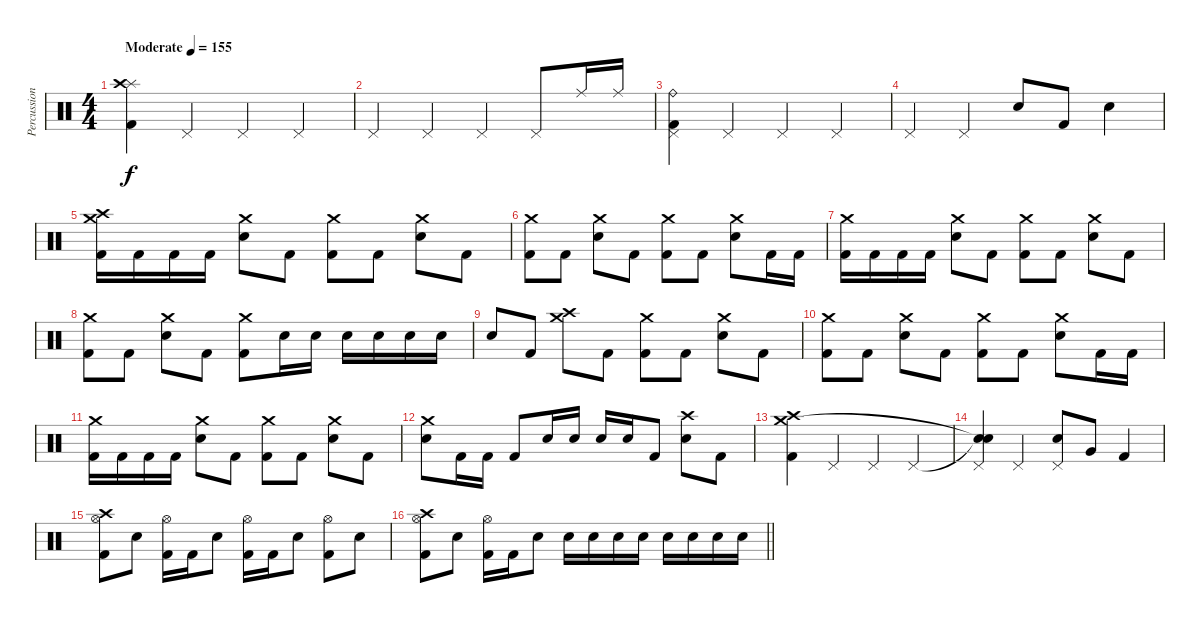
\track ("Percussion" "Percussion") {instrument percussion}
\staff {score}
\articulation defaults
\ts (4 4)
\tempo (155 "Moderate")
\clef neutral
\ks c
("Splash (hit)" "Crash high (hit)" "Kick (hit) 2").4{dy f} "Pedal Hi-Hat (hit)".4 "Pedal Hi-Hat (hit)".4 "Pedal Hi-Hat (hit)".4 |
"Pedal Hi-Hat (hit)".4 "Pedal Hi-Hat (hit)".4 "Pedal Hi-Hat (hit)".4 "Pedal Hi-Hat (hit)".8 "Ride (middle)".16 "Ride (middle)".16 |
("Ride (bell)" "Kick (hit) 2" "Pedal Hi-Hat (hit)").4 "Pedal Hi-Hat (hit)".4 "Pedal Hi-Hat (hit)".4 "Pedal Hi-Hat (hit)".4 |
"Pedal Hi-Hat (hit)".4 "Pedal Hi-Hat (hit)".4 "Electric Snare (hit)".8 "Kick (hit) 2".8 "Electric Snare (hit)".4 |
("Crash medium (hit)" "Crash high (hit)" "Kick (hit) 2").16 "Kick (hit) 2".16 "Kick (hit) 2".16 "Kick (hit) 2".16 ("Crash medium (hit)" "Electric Snare (hit)").8 "Kick (hit) 2".8 ("Crash medium (hit)" "Kick (hit) 2").8 "Kick (hit) 2".8 ("Crash medium (hit)" "Electric Snare (hit)").8 "Kick (hit) 2".8 |
("Crash medium (hit)" "Kick (hit) 2").8 "Kick (hit) 2".8 ("Crash medium (hit)" "Electric Snare (hit)").8 "Kick (hit) 2".8 ("Crash medium (hit)" "Kick (hit) 2").8 "Kick (hit) 2".8 ("Crash medium (hit)" "Electric Snare (hit)").8 "Kick (hit) 2".16 "Kick (hit) 2".16 |
("Crash medium (hit)" "Kick (hit) 2").16 "Kick (hit) 2".16 "Kick (hit) 2".16 "Kick (hit) 2".16 ("Crash medium (hit)" "Electric Snare (hit)").8 "Kick (hit) 2".8 ("Crash medium (hit)" "Kick (hit) 2").8 "Kick (hit) 2".8 ("Crash medium (hit)" "Electric Snare (hit)").8 "Kick (hit) 2".8 |
("Crash medium (hit)" "Kick (hit) 2").8 "Kick (hit) 2".8 ("Crash medium (hit)" "Electric Snare (hit)").8 "Kick (hit) 2".8 ("Crash medium (hit)" "Kick (hit) 2").8 "Electric Snare (hit)".16 "Electric Snare (hit)".16 "Electric Snare (hit)".16 "Electric Snare (hit)".16 "Electric Snare (hit)".16 "Electric Snare (hit)".16 |
"Electric Snare (hit)".8 "Kick (hit) 2".8 ("Crash medium (hit)" "Crash high (hit)").8 "Kick (hit) 2".8 ("Crash medium (hit)" "Kick (hit) 2").8 "Kick (hit) 2".8 ("Crash medium (hit)" "Electric Snare (hit)").8 "Kick (hit) 2".8 |
("Crash medium (hit)" "Kick (hit) 2").8 "Kick (hit) 2".8 ("Crash medium (hit)" "Electric Snare (hit)").8 "Kick (hit) 2".8 ("Crash medium (hit)" "Kick (hit) 2").8 "Kick (hit) 2".8 ("Crash medium (hit)" "Electric Snare (hit)").8 "Kick (hit) 2".16 "Kick (hit) 2".16 |
("Crash medium (hit)" "Kick (hit) 2").16 "Kick (hit) 2".16 "Kick (hit) 2".16 "Kick (hit) 2".16 ("Crash medium (hit)" "Electric Snare (hit)").8 "Kick (hit) 2".8 ("Crash medium (hit)" "Kick (hit) 2").8 "Kick (hit) 2".8 ("Crash medium (hit)" "Electric Snare (hit)").8 "Kick (hit) 2".8 |
("Crash medium (hit)" "Electric Snare (hit)").8 "Kick (hit) 2".16 "Kick (hit) 2".16 "Kick (hit) 2".8 "Electric Snare (hit)".16 "Electric Snare (hit)".16 "Electric Snare (hit)".16 "Electric Snare (hit)".16 "Kick (hit) 2".8 ("Crash high (hit)" "Electric Snare (hit)").8 "Kick (hit) 2".8 |
("Crash high (hit)" "Crash medium (hit)" "Kick (hit) 2").4 "Pedal Hi-Hat (hit)".4 "Pedal Hi-Hat (hit)".4 "Pedal Hi-Hat (hit)".4 |
("Snare (hit)"{t} "Snare (hit)"{t} "Pedal Hi-Hat (hit)").4 "Pedal Hi-Hat (hit)".4 ("Electric Snare (hit)" "Pedal Hi-Hat (hit)").8 "Very Low Tom (hit)".8 "Kick (hit) 2".4 |
("Hi-Hat (open)" "Crash high (hit)" "Kick (hit) 2").8 "Electric Snare (hit)".8 ("Hi-Hat (open)" "Kick (hit) 2").16 "Kick (hit) 2".16 "Electric Snare (hit)".8 ("Hi-Hat (open)" "Kick (hit) 2").16 "Kick (hit) 2".16 "Electric Snare (hit)".8 ("Hi-Hat (open)" "Kick (hit) 2").8 "Electric Snare (hit)".8 |
\barLineRight lightlight
("Hi-Hat (open)" "Crash high (hit)" "Kick (hit) 2").8 "Electric Snare (hit)".8 ("Hi-Hat (open)" "Kick (hit) 2").16 "Kick (hit) 2".16 "Electric Snare (hit)".8 "Electric Snare (hit)".16 "Electric Snare (hit)".16 "Electric Snare (hit)".16 "Electric Snare (hit)".16 "Electric Snare (hit)".16 "Electric Snare (hit)".16 "Electric Snare (hit)".16 "Electric Snare (hit)".16
